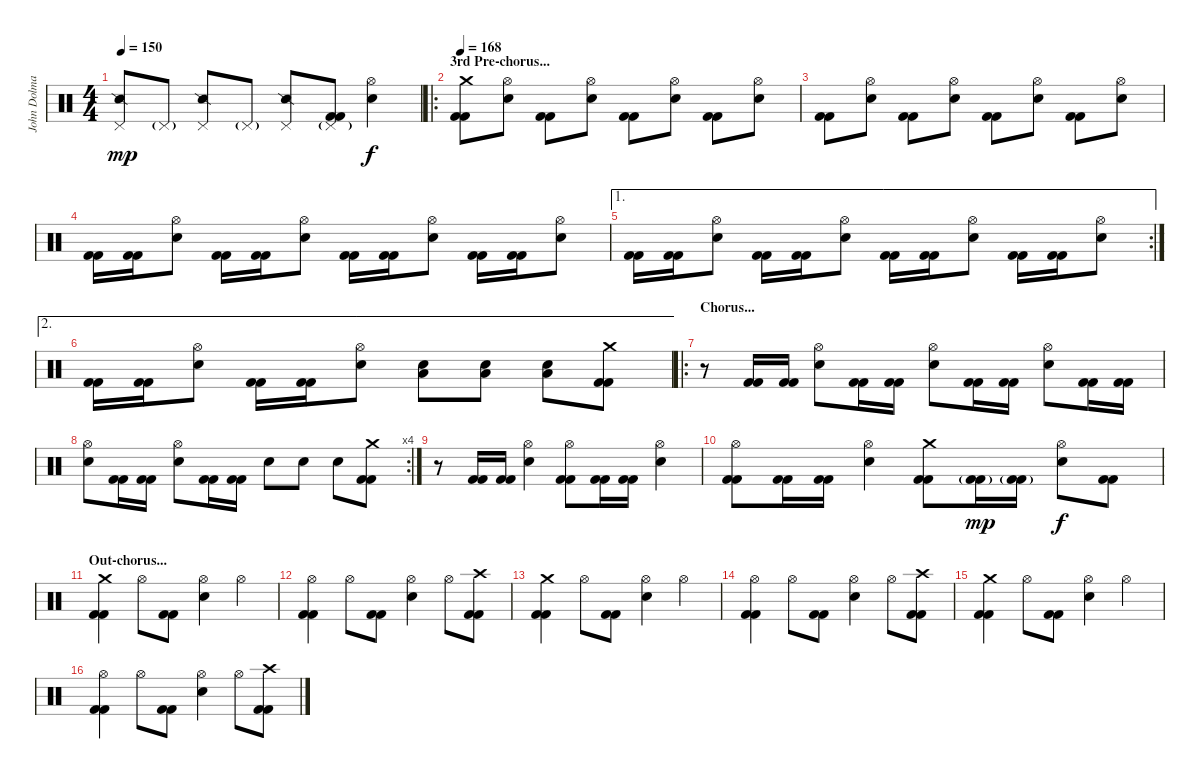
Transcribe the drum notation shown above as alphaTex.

\track ("John Dolmayan" "John Dolma") {instrument percussion}
\staff {score}
\articulation defaults
\ts (4 4)
\tempo 150
\clef neutral
\ks c
("Pedal Hi-Hat (hit)" "Snare (side stick) 2").8{dy mp} "Pedal Hi-Hat (hit)"{g}.8 ("Pedal Hi-Hat (hit)" "Snare (side stick) 2").8 "Pedal Hi-Hat (hit)"{g}.8 ("Pedal Hi-Hat (hit)" "Snare (side stick) 2").8 ("Pedal Hi-Hat (hit)"{g} "Kick (hit) 2" "Kick (hit) 2").8 ("Hi-Hat (open)" "Electric Snare (hit)").4{dy f} |
\ro
\section ("" "3rd Pre-chorus...")
\tempo 168
("Crash medium (hit)" "Kick (hit) 2" "Kick (hit) 2").8 ("Hi-Hat (open)" "Electric Snare (hit)").8 ("Kick (hit) 2" "Kick (hit) 2").8 ("Hi-Hat (open)" "Electric Snare (hit)").8 ("Kick (hit) 2" "Kick (hit) 2").8 ("Hi-Hat (open)" "Electric Snare (hit)").8 ("Kick (hit) 2" "Kick (hit) 2").8 ("Hi-Hat (open)" "Electric Snare (hit)").8 |
("Kick (hit) 2" "Kick (hit) 2").8 ("Hi-Hat (open)" "Electric Snare (hit)").8 ("Kick (hit) 2" "Kick (hit) 2").8 ("Hi-Hat (open)" "Electric Snare (hit)").8 ("Kick (hit) 2" "Kick (hit) 2").8 ("Hi-Hat (open)" "Electric Snare (hit)").8 ("Kick (hit) 2" "Kick (hit) 2").8 ("Hi-Hat (open)" "Electric Snare (hit)").8 |
("Kick (hit) 2" "Kick (hit) 2").16 ("Kick (hit) 2" "Kick (hit) 2").16 ("Hi-Hat (open)" "Electric Snare (hit)").8 ("Kick (hit) 2" "Kick (hit) 2").16 ("Kick (hit) 2" "Kick (hit) 2").16 ("Hi-Hat (open)" "Electric Snare (hit)").8 ("Kick (hit) 2" "Kick (hit) 2").16 ("Kick (hit) 2" "Kick (hit) 2").16 ("Hi-Hat (open)" "Electric Snare (hit)").8 ("Kick (hit) 2" "Kick (hit) 2").16 ("Kick (hit) 2" "Kick (hit) 2").16 ("Hi-Hat (open)" "Electric Snare (hit)").8 |
\ae 1
\rc 2
("Kick (hit) 2" "Kick (hit) 2").16 ("Kick (hit) 2" "Kick (hit) 2").16 ("Hi-Hat (open)" "Electric Snare (hit)").8 ("Kick (hit) 2" "Kick (hit) 2").16 ("Kick (hit) 2" "Kick (hit) 2").16 ("Hi-Hat (open)" "Electric Snare (hit)").8 ("Kick (hit) 2" "Kick (hit) 2").16 ("Kick (hit) 2" "Kick (hit) 2").16 ("Hi-Hat (open)" "Electric Snare (hit)").8 ("Kick (hit) 2" "Kick (hit) 2").16 ("Kick (hit) 2" "Kick (hit) 2").16 ("Hi-Hat (open)" "Electric Snare (hit)").8 |
\ae 2
("Kick (hit) 2" "Kick (hit) 2").16 ("Kick (hit) 2" "Kick (hit) 2").16 ("Hi-Hat (open)" "Electric Snare (hit)").8 ("Kick (hit) 2" "Kick (hit) 2").16 ("Kick (hit) 2" "Kick (hit) 2").16 ("Hi-Hat (open)" "Electric Snare (hit)").8 ("Electric Snare (hit)" "Low Floor Tom (hit)").8 ("Electric Snare (hit)" "Low Floor Tom (hit)").8 ("Electric Snare (hit)" "Low Floor Tom (hit)").8 ("Crash medium (hit)" "Kick (hit) 2" "Kick (hit) 2").8 |
\ro
\section ("" "Chorus...")
r.8 ("Kick (hit) 2" "Kick (hit) 2").16 ("Kick (hit) 2" "Kick (hit) 2").16 ("Hi-Hat (open)" "Electric Snare (hit)").8 ("Kick (hit) 2" "Kick (hit) 2").16 ("Kick (hit) 2" "Kick (hit) 2").16 ("Hi-Hat (open)" "Electric Snare (hit)").8 ("Kick (hit) 2" "Kick (hit) 2").16 ("Kick (hit) 2" "Kick (hit) 2").16 ("Hi-Hat (open)" "Electric Snare (hit)").8 ("Kick (hit) 2" "Kick (hit) 2").16 ("Kick (hit) 2" "Kick (hit) 2").16 |
\rc 4
("Hi-Hat (open)" "Electric Snare (hit)").8 ("Kick (hit) 2" "Kick (hit) 2").16 ("Kick (hit) 2" "Kick (hit) 2").16 ("Hi-Hat (open)" "Electric Snare (hit)").8 ("Kick (hit) 2" "Kick (hit) 2").16 ("Kick (hit) 2" "Kick (hit) 2").16 "Electric Snare (hit)".8 "Electric Snare (hit)".8 "Electric Snare (hit)".8 ("Crash medium (hit)" "Kick (hit) 2" "Kick (hit) 2").8 |
r.8 ("Kick (hit) 2" "Kick (hit) 2").16 ("Kick (hit) 2" "Kick (hit) 2").16 ("Hi-Hat (open)" "Electric Snare (hit)").4 ("Hi-Hat (open)" "Kick (hit) 2" "Kick (hit) 2").8 ("Kick (hit) 2" "Kick (hit) 2").16 ("Kick (hit) 2" "Kick (hit) 2").16 ("Hi-Hat (open)" "Electric Snare (hit)").4 |
("Hi-Hat (open)" "Kick (hit) 2" "Kick (hit) 2").8 ("Kick (hit) 2" "Kick (hit) 2").16 ("Kick (hit) 2" "Kick (hit) 2").16 ("Hi-Hat (open)" "Electric Snare (hit)").4 ("Crash medium (hit)" "Kick (hit) 2" "Kick (hit) 2").8 ("Kick (hit) 2"{g} "Kick (hit) 2"{g}).16{dy mp} ("Kick (hit) 2"{g} "Kick (hit) 2"{g}).16 ("Hi-Hat (open)" "Electric Snare (hit)").8{dy f} ("Kick (hit) 2" "Kick (hit) 2").8 |
\section ("" "Out-chorus...")
("Crash medium (hit)" "Kick (hit) 2" "Kick (hit) 2").4 "Hi-Hat (open)".8 ("Kick (hit) 2" "Kick (hit) 2").8 ("Hi-Hat (open)" "Electric Snare (hit)").4 "Hi-Hat (open)".4 |
("Hi-Hat (open)" "Kick (hit) 2" "Kick (hit) 2").4 "Hi-Hat (open)".8 ("Kick (hit) 2" "Kick (hit) 2").8 ("Hi-Hat (open)" "Electric Snare (hit)").4 "Hi-Hat (open)".8 ("Crash high (hit)" "Kick (hit) 2" "Kick (hit) 2").8 |
("Crash medium (hit)" "Kick (hit) 2" "Kick (hit) 2").4 "Hi-Hat (open)".8 ("Kick (hit) 2" "Kick (hit) 2").8 ("Hi-Hat (open)" "Electric Snare (hit)").4 "Hi-Hat (open)".4 |
("Hi-Hat (open)" "Kick (hit) 2" "Kick (hit) 2").4 "Hi-Hat (open)".8 ("Kick (hit) 2" "Kick (hit) 2").8 ("Hi-Hat (open)" "Electric Snare (hit)").4 "Hi-Hat (open)".8 ("Crash high (hit)" "Kick (hit) 2" "Kick (hit) 2").8 |
("Crash medium (hit)" "Kick (hit) 2" "Kick (hit) 2").4 "Hi-Hat (open)".8 ("Kick (hit) 2" "Kick (hit) 2").8 ("Hi-Hat (open)" "Electric Snare (hit)").4 "Hi-Hat (open)".4 |
("Hi-Hat (open)" "Kick (hit) 2" "Kick (hit) 2").4 "Hi-Hat (open)".8 ("Kick (hit) 2" "Kick (hit) 2").8 ("Hi-Hat (open)" "Electric Snare (hit)").4 "Hi-Hat (open)".8 ("Crash high (hit)" "Kick (hit) 2" "Kick (hit) 2").8
